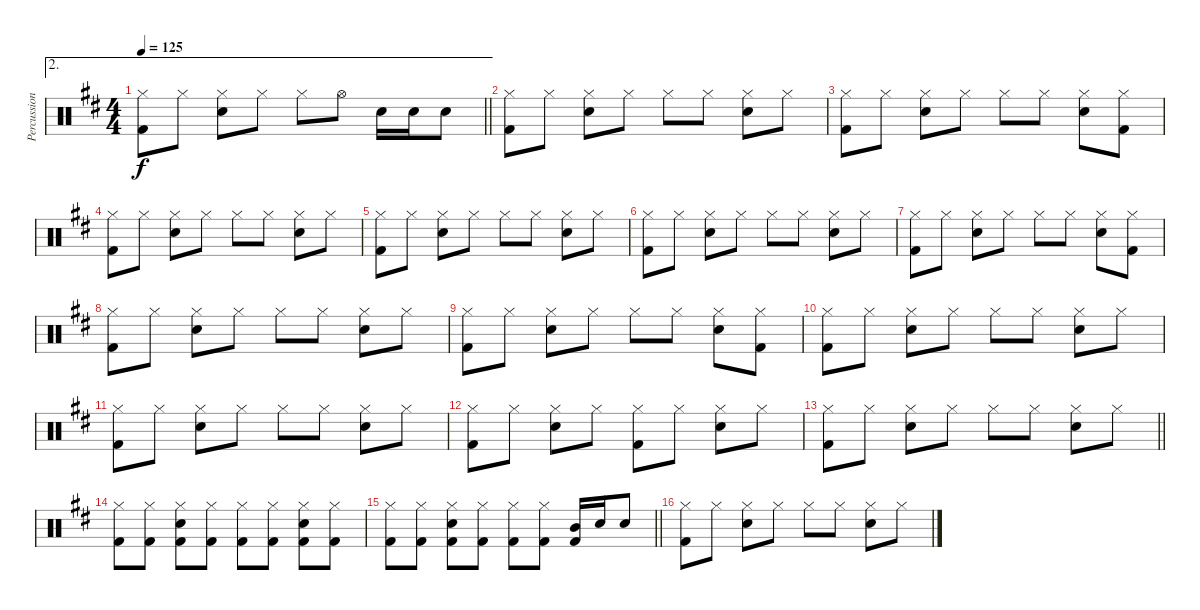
\track ("Percussion" "Percussion") {instrument percussion}
\staff {score}
\articulation defaults
\ae 2
\ts (4 4)
\tempo 125
\clef neutral
\barLineRight lightlight
\ks d
("Hi-Hat (closed)" "Kick (hit) 2").8{dy f} "Hi-Hat (closed)".8 ("Hi-Hat (closed)" "Snare (hit) 2").8 "Hi-Hat (closed)".8 "Hi-Hat (closed)".8 "Hi-Hat (open)".8 "Snare (hit) 2".16 "Snare (hit) 2".16 "Snare (hit) 2".8 |
("Hi-Hat (closed)" "Kick (hit) 2").8 "Hi-Hat (closed)".8 ("Hi-Hat (closed)" "Snare (hit) 2").8 "Hi-Hat (closed)".8 "Hi-Hat (closed)".8 "Hi-Hat (closed)".8 ("Hi-Hat (closed)" "Snare (hit) 2").8 "Hi-Hat (closed)".8 |
("Hi-Hat (closed)" "Kick (hit) 2").8 "Hi-Hat (closed)".8 ("Hi-Hat (closed)" "Snare (hit) 2").8 "Hi-Hat (closed)".8 "Hi-Hat (closed)".8 "Hi-Hat (closed)".8 ("Hi-Hat (closed)" "Snare (hit) 2").8 ("Hi-Hat (closed)" "Kick (hit) 2").8 |
("Hi-Hat (closed)" "Kick (hit) 2").8 "Hi-Hat (closed)".8 ("Hi-Hat (closed)" "Snare (hit) 2").8 "Hi-Hat (closed)".8 "Hi-Hat (closed)".8 "Hi-Hat (closed)".8 ("Hi-Hat (closed)" "Snare (hit) 2").8 "Hi-Hat (closed)".8 |
("Hi-Hat (closed)" "Kick (hit) 2").8 "Hi-Hat (closed)".8 ("Hi-Hat (closed)" "Snare (hit) 2").8 "Hi-Hat (closed)".8 "Hi-Hat (closed)".8 "Hi-Hat (closed)".8 ("Hi-Hat (closed)" "Snare (hit) 2").8 "Hi-Hat (closed)".8 |
("Hi-Hat (closed)" "Kick (hit) 2").8 "Hi-Hat (closed)".8 ("Hi-Hat (closed)" "Snare (hit) 2").8 "Hi-Hat (closed)".8 "Hi-Hat (closed)".8 "Hi-Hat (closed)".8 ("Hi-Hat (closed)" "Snare (hit) 2").8 "Hi-Hat (closed)".8 |
("Hi-Hat (closed)" "Kick (hit) 2").8 "Hi-Hat (closed)".8 ("Hi-Hat (closed)" "Snare (hit) 2").8 "Hi-Hat (closed)".8 "Hi-Hat (closed)".8 "Hi-Hat (closed)".8 ("Hi-Hat (closed)" "Snare (hit) 2").8 ("Hi-Hat (closed)" "Kick (hit) 2").8 |
("Hi-Hat (closed)" "Kick (hit) 2").8 "Hi-Hat (closed)".8 ("Hi-Hat (closed)" "Snare (hit) 2").8 "Hi-Hat (closed)".8 "Hi-Hat (closed)".8 "Hi-Hat (closed)".8 ("Hi-Hat (closed)" "Snare (hit) 2").8 "Hi-Hat (closed)".8 |
("Hi-Hat (closed)" "Kick (hit) 2").8 "Hi-Hat (closed)".8 ("Hi-Hat (closed)" "Snare (hit) 2").8 "Hi-Hat (closed)".8 "Hi-Hat (closed)".8 "Hi-Hat (closed)".8 ("Hi-Hat (closed)" "Snare (hit) 2").8 ("Hi-Hat (closed)" "Kick (hit) 2").8 |
("Hi-Hat (closed)" "Kick (hit) 2").8 "Hi-Hat (closed)".8 ("Hi-Hat (closed)" "Snare (hit) 2").8 "Hi-Hat (closed)".8 "Hi-Hat (closed)".8 "Hi-Hat (closed)".8 ("Hi-Hat (closed)" "Snare (hit) 2").8 "Hi-Hat (closed)".8 |
("Hi-Hat (closed)" "Kick (hit) 2").8 "Hi-Hat (closed)".8 ("Hi-Hat (closed)" "Snare (hit) 2").8 "Hi-Hat (closed)".8 "Hi-Hat (closed)".8 "Hi-Hat (closed)".8 ("Hi-Hat (closed)" "Snare (hit) 2").8 "Hi-Hat (closed)".8 |
("Hi-Hat (closed)" "Kick (hit) 2").8 "Hi-Hat (closed)".8 ("Hi-Hat (closed)" "Snare (hit) 2").8 "Hi-Hat (closed)".8 ("Hi-Hat (closed)" "Kick (hit) 2").8 "Hi-Hat (closed)".8 ("Hi-Hat (closed)" "Snare (hit) 2").8 "Hi-Hat (closed)".8 |
\barLineRight lightlight
("Hi-Hat (closed)" "Kick (hit) 2").8 "Hi-Hat (closed)".8 ("Hi-Hat (closed)" "Snare (hit) 2").8 "Hi-Hat (closed)".8 "Hi-Hat (closed)".8 "Hi-Hat (closed)".8 ("Hi-Hat (closed)" "Snare (hit) 2").8 "Hi-Hat (closed)".8 |
("Hi-Hat (closed)" "Kick (hit) 2").8 ("Hi-Hat (closed)" "Kick (hit) 2").8 ("Hi-Hat (closed)" "Snare (hit) 2" "Kick (hit) 2").8 ("Hi-Hat (closed)" "Kick (hit) 2").8 ("Hi-Hat (closed)" "Kick (hit) 2").8 ("Hi-Hat (closed)" "Kick (hit) 2").8 ("Hi-Hat (closed)" "Snare (hit) 2" "Kick (hit) 2").8 ("Hi-Hat (closed)" "Kick (hit) 2").8 |
\barLineRight lightlight
("Hi-Hat (closed)" "Kick (hit) 2").8 ("Hi-Hat (closed)" "Kick (hit) 2").8 ("Hi-Hat (closed)" "Snare (hit) 2" "Kick (hit) 2").8 ("Hi-Hat (closed)" "Kick (hit) 2").8 ("Hi-Hat (closed)" "Kick (hit) 2").8 ("Hi-Hat (closed)" "Kick (hit) 2").8 ("Mid Tom (hit)" "Kick (hit) 2").16 "Snare (hit) 2".16 "Snare (hit) 2".8 |
("Hi-Hat (closed)" "Kick (hit) 2").8 "Hi-Hat (closed)".8 ("Hi-Hat (closed)" "Snare (hit) 2").8 "Hi-Hat (closed)".8 "Hi-Hat (closed)".8 "Hi-Hat (closed)".8 ("Hi-Hat (closed)" "Snare (hit) 2").8 "Hi-Hat (closed)".8
